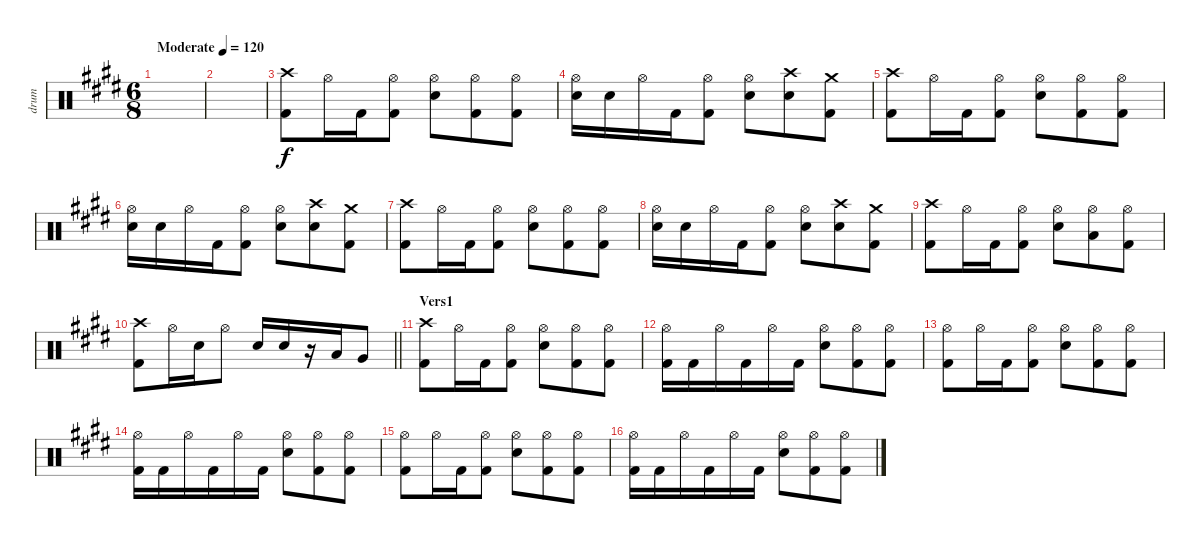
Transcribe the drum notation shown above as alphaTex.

\track ("drum" "drum") {instrument percussion}
\staff {score}
\articulation defaults
\ts (6 8)
\section ("" "")
\tempo (120 "Moderate")
\clef neutral
\ks e
|
|
("Crash high (hit)" "Kick (hit) 2").8 "Hi-Hat (open)".16 "Kick (hit) 2".16 ("Hi-Hat (open)" "Kick (hit) 2").8 ("Hi-Hat (open)" "Snare (hit) 2").8 ("Hi-Hat (open)" "Kick (hit) 2").8 ("Hi-Hat (open)" "Kick (hit) 2").8 |
("Hi-Hat (open)" "Snare (hit) 2").16 "Snare (hit) 2".16 "Hi-Hat (open)".16 "Kick (hit) 2".16 ("Hi-Hat (open)" "Kick (hit) 2").8 ("Hi-Hat (open)" "Snare (hit) 2").8 ("Crash high (hit)" "Snare (hit) 2").8 ("Crash medium (hit)" "Kick (hit) 2").8 |
("Crash high (hit)" "Kick (hit) 2").8 "Hi-Hat (open)".16 "Kick (hit) 2".16 ("Hi-Hat (open)" "Kick (hit) 2").8 ("Hi-Hat (open)" "Snare (hit) 2").8 ("Hi-Hat (open)" "Kick (hit) 2").8 ("Hi-Hat (open)" "Kick (hit) 2").8 |
("Hi-Hat (open)" "Snare (hit) 2").16 "Snare (hit) 2".16 "Hi-Hat (open)".16 "Kick (hit) 2".16 ("Hi-Hat (open)" "Kick (hit) 2").8 ("Hi-Hat (open)" "Snare (hit) 2").8 ("Crash high (hit)" "Snare (hit) 2").8 ("Crash medium (hit)" "Kick (hit) 2").8 |
("Crash high (hit)" "Kick (hit) 2").8 "Hi-Hat (open)".16 "Kick (hit) 2".16 ("Hi-Hat (open)" "Kick (hit) 2").8 ("Hi-Hat (open)" "Snare (hit) 2").8 ("Hi-Hat (open)" "Kick (hit) 2").8 ("Hi-Hat (open)" "Kick (hit) 2").8 |
("Hi-Hat (open)" "Snare (hit) 2").16 "Snare (hit) 2".16 "Hi-Hat (open)".16 "Kick (hit) 2".16 ("Hi-Hat (open)" "Kick (hit) 2").8 ("Hi-Hat (open)" "Snare (hit) 2").8 ("Crash high (hit)" "Snare (hit) 2").8 ("Crash medium (hit)" "Kick (hit) 2").8 |
("Crash high (hit)" "Kick (hit) 2").8 "Hi-Hat (open)".16 "Kick (hit) 2".16 ("Hi-Hat (open)" "Kick (hit) 2").8 ("Hi-Hat (open)" "Snare (hit) 2").8 ("Hi-Hat (open)" "Low Tom (hit)").8 ("Hi-Hat (open)" "Kick (hit) 2").8 |
\barLineRight lightlight
("Crash high (hit)" "Kick (hit) 2").8 "Hi-Hat (open)".16 "Snare (hit) 2".16 "Hi-Hat (open)".8 "Snare (hit) 2".16 "Snare (hit) 2".16 r.16 "Low Tom (hit)".16 "Very Low Tom (hit)".8 |
\section ("" "Vers1")
("Crash high (hit)" "Kick (hit) 2").8 "Hi-Hat (open)".16 "Kick (hit) 2".16 ("Hi-Hat (open)" "Kick (hit) 2").8 ("Hi-Hat (open)" "Snare (hit) 2").8 ("Hi-Hat (open)" "Kick (hit) 2").8 ("Hi-Hat (open)" "Kick (hit) 2").8 |
("Hi-Hat (open)" "Kick (hit) 2").16 "Kick (hit) 2".16 "Hi-Hat (open)".16 "Kick (hit) 2".16 "Hi-Hat (open)".16 "Kick (hit) 2".16 ("Hi-Hat (open)" "Snare (hit) 2").8 ("Hi-Hat (open)" "Kick (hit) 2").8 ("Hi-Hat (open)" "Kick (hit) 2").8 |
("Hi-Hat (open)" "Kick (hit) 2").8 "Hi-Hat (open)".16 "Kick (hit) 2".16 ("Hi-Hat (open)" "Kick (hit) 2").8 ("Hi-Hat (open)" "Snare (hit) 2").8 ("Hi-Hat (open)" "Kick (hit) 2").8 ("Hi-Hat (open)" "Kick (hit) 2").8 |
("Hi-Hat (open)" "Kick (hit) 2").16 "Kick (hit) 2".16 "Hi-Hat (open)".16 "Kick (hit) 2".16 "Hi-Hat (open)".16 "Kick (hit) 2".16 ("Hi-Hat (open)" "Snare (hit) 2").8 ("Hi-Hat (open)" "Kick (hit) 2").8 ("Hi-Hat (open)" "Kick (hit) 2").8 |
("Hi-Hat (open)" "Kick (hit) 2").8 "Hi-Hat (open)".16 "Kick (hit) 2".16 ("Hi-Hat (open)" "Kick (hit) 2").8 ("Hi-Hat (open)" "Snare (hit) 2").8 ("Hi-Hat (open)" "Kick (hit) 2").8 ("Hi-Hat (open)" "Kick (hit) 2").8 |
("Hi-Hat (open)" "Kick (hit) 2").16 "Kick (hit) 2".16 "Hi-Hat (open)".16 "Kick (hit) 2".16 "Hi-Hat (open)".16 "Kick (hit) 2".16 ("Hi-Hat (open)" "Snare (hit) 2").8 ("Hi-Hat (open)" "Kick (hit) 2").8 ("Hi-Hat (open)" "Kick (hit) 2").8
